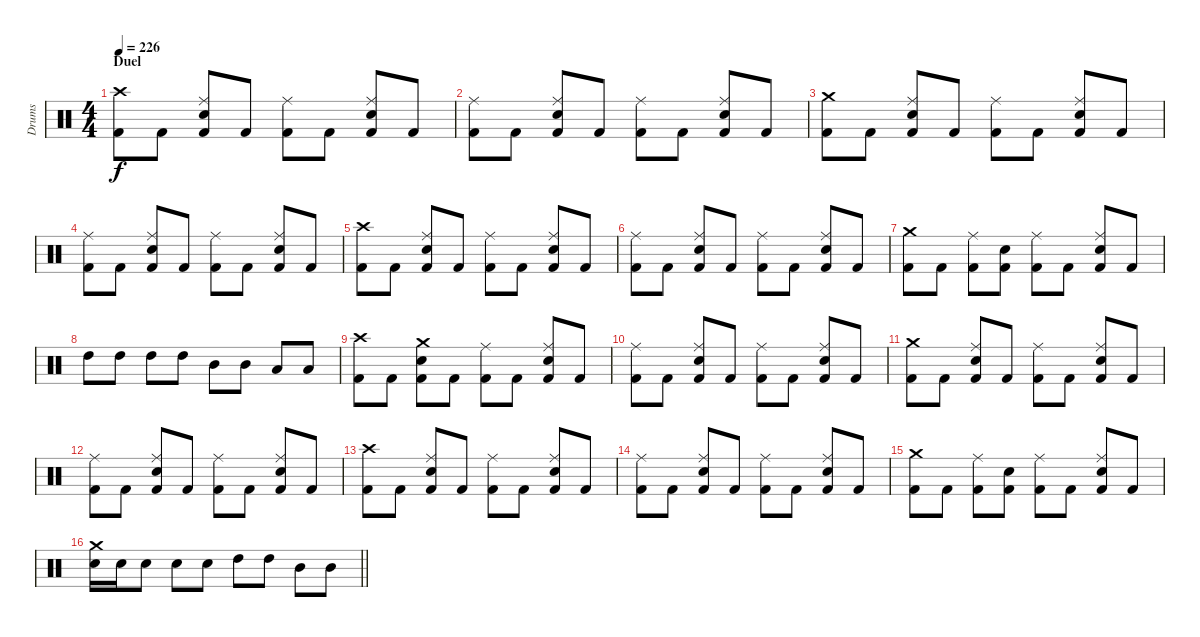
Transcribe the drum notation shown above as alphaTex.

\track ("Drums" "Drums") {instrument percussion}
\staff {score}
\articulation defaults
\ts (4 4)
\section ("" "Duel")
\tempo 226
\clef neutral
\ks c
("Crash high (hit)" "Kick (hit) 2").8{dy f} "Kick (hit) 2".8 ("Ride (middle)" "Snare (hit) 2" "Kick (hit) 2").8 "Kick (hit) 2".8 ("Ride (middle)" "Kick (hit) 2").8 "Kick (hit) 2".8 ("Ride (middle)" "Snare (hit) 2" "Kick (hit) 2").8 "Kick (hit) 2".8 |
("Ride (middle)" "Kick (hit) 2").8 "Kick (hit) 2".8 ("Ride (middle)" "Snare (hit) 2" "Kick (hit) 2").8 "Kick (hit) 2".8 ("Ride (middle)" "Kick (hit) 2").8 "Kick (hit) 2".8 ("Ride (middle)" "Snare (hit) 2" "Kick (hit) 2").8 "Kick (hit) 2".8 |
("Crash medium (hit)" "Kick (hit) 2").8 "Kick (hit) 2".8 ("Ride (middle)" "Snare (hit) 2" "Kick (hit) 2").8 "Kick (hit) 2".8 ("Ride (middle)" "Kick (hit) 2").8 "Kick (hit) 2".8 ("Ride (middle)" "Snare (hit) 2" "Kick (hit) 2").8 "Kick (hit) 2".8 |
("Ride (middle)" "Kick (hit) 2").8 "Kick (hit) 2".8 ("Ride (middle)" "Snare (hit) 2" "Kick (hit) 2").8 "Kick (hit) 2".8 ("Ride (middle)" "Kick (hit) 2").8 "Kick (hit) 2".8 ("Ride (middle)" "Snare (hit) 2" "Kick (hit) 2").8 "Kick (hit) 2".8 |
("Crash high (hit)" "Kick (hit) 2").8 "Kick (hit) 2".8 ("Ride (middle)" "Snare (hit) 2" "Kick (hit) 2").8 "Kick (hit) 2".8 ("Ride (middle)" "Kick (hit) 2").8 "Kick (hit) 2".8 ("Ride (middle)" "Snare (hit) 2" "Kick (hit) 2").8 "Kick (hit) 2".8 |
("Ride (middle)" "Kick (hit) 2").8 "Kick (hit) 2".8 ("Ride (middle)" "Snare (hit) 2" "Kick (hit) 2").8 "Kick (hit) 2".8 ("Ride (middle)" "Kick (hit) 2").8 "Kick (hit) 2".8 ("Ride (middle)" "Snare (hit) 2" "Kick (hit) 2").8 "Kick (hit) 2".8 |
("Crash medium (hit)" "Kick (hit) 2").8 "Kick (hit) 2".8 ("Ride (middle)" "Kick (hit) 2").8 ("Snare (hit) 2" "Kick (hit) 2").8 ("Ride (middle)" "Kick (hit) 2").8 "Kick (hit) 2".8 ("Ride (middle)" "Snare (hit) 2" "Kick (hit) 2").8 "Kick (hit) 2".8 |
"High Tom (hit)".8 "High Tom (hit)".8 "High Tom (hit)".8 "High Tom (hit)".8 "Mid Tom (hit)".8 "Mid Tom (hit)".8 "Low Tom (hit)".8 "Low Tom (hit)".8 |
("Crash high (hit)" "Kick (hit) 2").8 "Kick (hit) 2".8 ("Crash medium (hit)" "Snare (hit) 2" "Kick (hit) 2").8 "Kick (hit) 2".8 ("Ride (middle)" "Kick (hit) 2").8 "Kick (hit) 2".8 ("Ride (middle)" "Snare (hit) 2" "Kick (hit) 2").8 "Kick (hit) 2".8 |
("Ride (middle)" "Kick (hit) 2").8 "Kick (hit) 2".8 ("Ride (middle)" "Snare (hit) 2" "Kick (hit) 2").8 "Kick (hit) 2".8 ("Ride (middle)" "Kick (hit) 2").8 "Kick (hit) 2".8 ("Ride (middle)" "Snare (hit) 2" "Kick (hit) 2").8 "Kick (hit) 2".8 |
("Crash medium (hit)" "Kick (hit) 2").8 "Kick (hit) 2".8 ("Ride (middle)" "Snare (hit) 2" "Kick (hit) 2").8 "Kick (hit) 2".8 ("Ride (middle)" "Kick (hit) 2").8 "Kick (hit) 2".8 ("Ride (middle)" "Snare (hit) 2" "Kick (hit) 2").8 "Kick (hit) 2".8 |
("Ride (middle)" "Kick (hit) 2").8 "Kick (hit) 2".8 ("Ride (middle)" "Snare (hit) 2" "Kick (hit) 2").8 "Kick (hit) 2".8 ("Ride (middle)" "Kick (hit) 2").8 "Kick (hit) 2".8 ("Ride (middle)" "Snare (hit) 2" "Kick (hit) 2").8 "Kick (hit) 2".8 |
("Crash high (hit)" "Kick (hit) 2").8 "Kick (hit) 2".8 ("Ride (middle)" "Snare (hit) 2" "Kick (hit) 2").8 "Kick (hit) 2".8 ("Ride (middle)" "Kick (hit) 2").8 "Kick (hit) 2".8 ("Ride (middle)" "Snare (hit) 2" "Kick (hit) 2").8 "Kick (hit) 2".8 |
("Ride (middle)" "Kick (hit) 2").8 "Kick (hit) 2".8 ("Ride (middle)" "Snare (hit) 2" "Kick (hit) 2").8 "Kick (hit) 2".8 ("Ride (middle)" "Kick (hit) 2").8 "Kick (hit) 2".8 ("Ride (middle)" "Snare (hit) 2" "Kick (hit) 2").8 "Kick (hit) 2".8 |
("Crash medium (hit)" "Kick (hit) 2").8 "Kick (hit) 2".8 ("Ride (middle)" "Kick (hit) 2").8 ("Snare (hit) 2" "Kick (hit) 2").8 ("Ride (middle)" "Kick (hit) 2").8 "Kick (hit) 2".8 ("Ride (middle)" "Snare (hit) 2" "Kick (hit) 2").8 "Kick (hit) 2".8 |
\barLineRight lightlight
("Crash medium (hit)" "Snare (hit) 2").16 "Snare (hit) 2".16 "Snare (hit) 2".8 "Snare (hit) 2".8 "Snare (hit) 2".8 "High Tom (hit)".8 "High Tom (hit)".8 "Mid Tom (hit)".8 "Mid Tom (hit)".8
